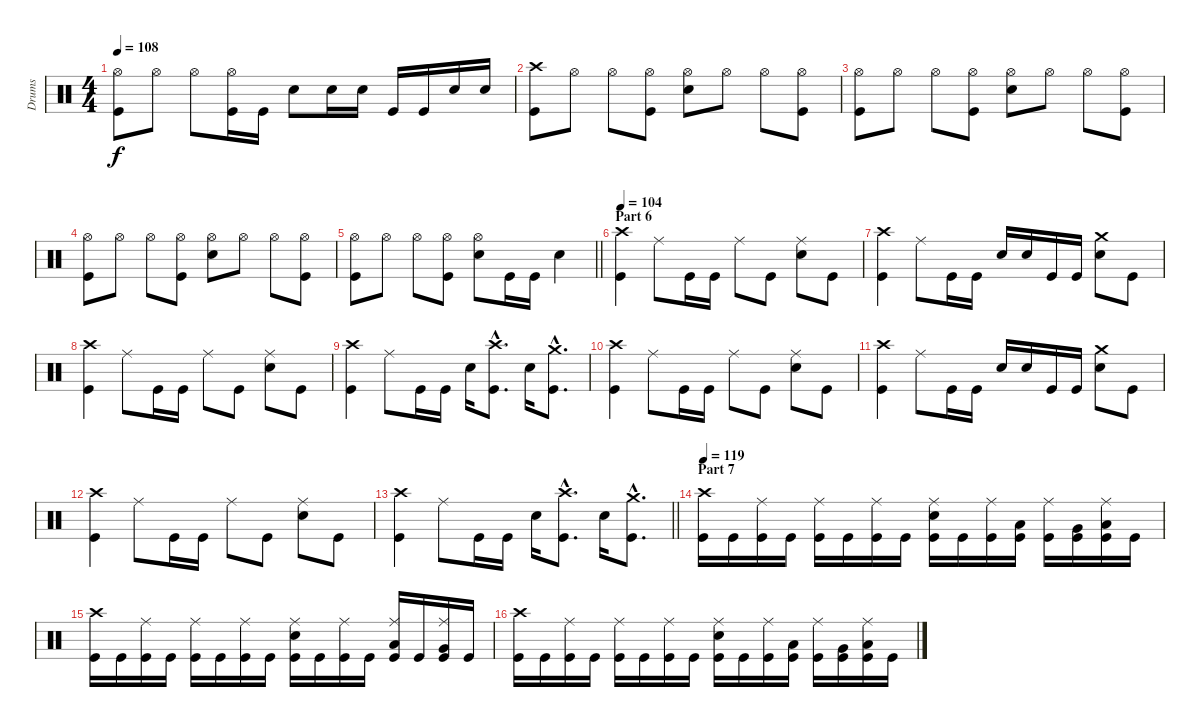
\track ("Drums" "Drums") {instrument percussion}
\staff {score}
\articulation defaults
\ts (4 4)
\tempo 108
\clef neutral
\ks c
("Hi-Hat (open)" "Kick (hit)").8{dy f} "Hi-Hat (open)".8 "Hi-Hat (open)".8 ("Hi-Hat (open)" "Kick (hit)").16 "Kick (hit)".16 "Snare (hit) 2".8 "Snare (hit) 2".16 "Snare (hit) 2".16 "Kick (hit)".16 "Kick (hit)".16 "Snare (hit) 2".16 "Snare (hit) 2".16 |
("Crash high (hit)" "Kick (hit)").8 "Hi-Hat (open)".8 "Hi-Hat (open)".8 ("Hi-Hat (open)" "Kick (hit)").8 ("Hi-Hat (open)" "Snare (hit) 2").8 "Hi-Hat (open)".8 "Hi-Hat (open)".8 ("Hi-Hat (open)" "Kick (hit)").8 |
("Hi-Hat (open)" "Kick (hit)").8 "Hi-Hat (open)".8 "Hi-Hat (open)".8 ("Hi-Hat (open)" "Kick (hit)").8 ("Hi-Hat (open)" "Snare (hit) 2").8 "Hi-Hat (open)".8 "Hi-Hat (open)".8 ("Hi-Hat (open)" "Kick (hit)").8 |
("Hi-Hat (open)" "Kick (hit)").8 "Hi-Hat (open)".8 "Hi-Hat (open)".8 ("Hi-Hat (open)" "Kick (hit)").8 ("Hi-Hat (open)" "Snare (hit) 2").8 "Hi-Hat (open)".8 "Hi-Hat (open)".8 ("Hi-Hat (open)" "Kick (hit)").8 |
\barLineRight lightlight
("Hi-Hat (open)" "Kick (hit)").8 "Hi-Hat (open)".8 "Hi-Hat (open)".8 ("Hi-Hat (open)" "Kick (hit)").8 ("Hi-Hat (open)" "Snare (hit) 2").8 "Kick (hit)".16 "Kick (hit)".16 "Snare (hit) 2".4 |
\section ("" "Part 6")
\tempo 104
("Crash high (hit)" "Kick (hit)").4 "Ride (middle)".8 "Kick (hit)".16 "Kick (hit)".16 "Ride (middle)".8 "Kick (hit)".8 ("Ride (middle)" "Snare (hit) 2").8 "Kick (hit)".8 |
("Crash high (hit)" "Kick (hit)").4 "Ride (middle)".8 "Kick (hit)".16 "Kick (hit)".16 "Snare (hit) 2".16 "Snare (hit) 2".16 "Kick (hit)".16 "Kick (hit)".16 ("Crash medium (hit)" "Snare (hit) 2").8 "Kick (hit)".8 |
("Crash high (hit)" "Kick (hit)").4 "Ride (middle)".8 "Kick (hit)".16 "Kick (hit)".16 "Ride (middle)".8 "Kick (hit)".8 ("Ride (middle)" "Snare (hit) 2").8 "Kick (hit)".8 |
("Crash high (hit)" "Kick (hit)").4 "Ride (middle)".8 "Kick (hit)".16 "Kick (hit)".16 "Snare (hit) 2".16 ("Crash high (hit)"{hac} "Kick (hit)"{hac}).8{d} "Snare (hit) 2".16 ("Crash medium (hit)"{hac} "Kick (hit)"{hac}).8{d} |
("Crash high (hit)" "Kick (hit)").4 "Ride (middle)".8 "Kick (hit)".16 "Kick (hit)".16 "Ride (middle)".8 "Kick (hit)".8 ("Ride (middle)" "Snare (hit) 2").8 "Kick (hit)".8 |
("Crash high (hit)" "Kick (hit)").4 "Ride (middle)".8 "Kick (hit)".16 "Kick (hit)".16 "Snare (hit) 2".16 "Snare (hit) 2".16 "Kick (hit)".16 "Kick (hit)".16 ("Crash medium (hit)" "Snare (hit) 2").8 "Kick (hit)".8 |
("Crash high (hit)" "Kick (hit)").4 "Ride (middle)".8 "Kick (hit)".16 "Kick (hit)".16 "Ride (middle)".8 "Kick (hit)".8 ("Ride (middle)" "Snare (hit) 2").8 "Kick (hit)".8 |
\barLineRight lightlight
("Crash high (hit)" "Kick (hit)").4 "Ride (middle)".8 "Kick (hit)".16 "Kick (hit)".16 "Snare (hit) 2".16 ("Crash high (hit)"{hac} "Kick (hit)"{hac}).8{d} "Snare (hit) 2".16 ("Crash medium (hit)"{hac} "Kick (hit)"{hac}).8{d} |
\section ("" "Part 7")
\tempo 119
("Crash high (hit)" "Kick (hit)").16 "Kick (hit)".16 ("Ride (middle)" "Kick (hit)").16 "Kick (hit)".16 ("Ride (middle)" "Kick (hit)").16 "Kick (hit)".16 ("Ride (middle)" "Kick (hit)").16 "Kick (hit)".16 ("Ride (middle)" "Snare (hit) 2" "Kick (hit)").16 "Kick (hit)".16 ("Ride (middle)" "Kick (hit)").16 ("Low Tom (hit)" "Kick (hit)").16 ("Ride (middle)" "Kick (hit)").16 ("Very Low Tom (hit)" "Kick (hit)").16 ("Ride (middle)" "Low Floor Tom (hit)" "Kick (hit)").16 "Kick (hit)".16 |
("Crash high (hit)" "Kick (hit)").16 "Kick (hit)".16 ("Ride (middle)" "Kick (hit)").16 "Kick (hit)".16 ("Ride (middle)" "Kick (hit)").16 "Kick (hit)".16 ("Ride (middle)" "Kick (hit)").16 "Kick (hit)".16 ("Ride (middle)" "Snare (hit) 2" "Kick (hit)").16 "Kick (hit)".16 ("Ride (middle)" "Kick (hit)").16 "Kick (hit)".16 ("Ride (middle)" "Low Tom (hit)" "Kick (hit)").16 "Kick (hit)".16 ("Ride (middle)" "Very Low Tom (hit)" "Kick (hit)").16 "Kick (hit)".16 |
("Crash high (hit)" "Kick (hit)").16 "Kick (hit)".16 ("Ride (middle)" "Kick (hit)").16 "Kick (hit)".16 ("Ride (middle)" "Kick (hit)").16 "Kick (hit)".16 ("Ride (middle)" "Kick (hit)").16 "Kick (hit)".16 ("Ride (middle)" "Snare (hit) 2" "Kick (hit)").16 "Kick (hit)".16 ("Ride (middle)" "Kick (hit)").16 ("Low Tom (hit)" "Kick (hit)").16 ("Ride (middle)" "Kick (hit)").16 ("Very Low Tom (hit)" "Kick (hit)").16 ("Ride (middle)" "Low Floor Tom (hit)" "Kick (hit)").16 "Kick (hit)".16
